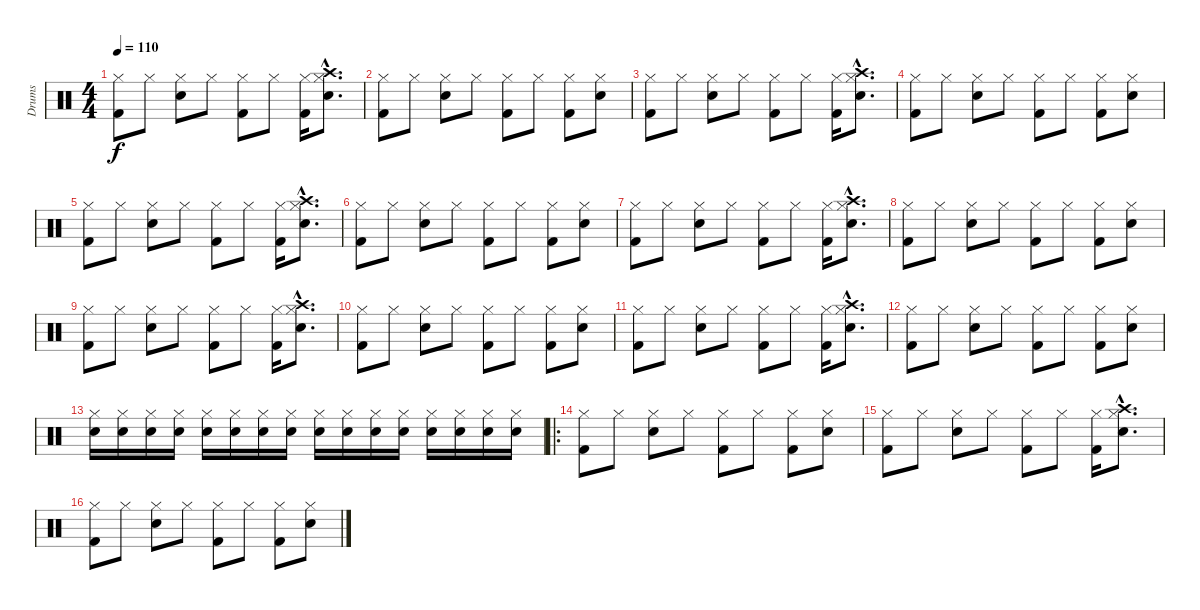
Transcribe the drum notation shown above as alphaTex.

\track ("Drums" "Drums") {instrument percussion}
\staff {score}
\articulation defaults
\ts (4 4)
\tempo 110
\clef neutral
\ks c
("Kick (hit) 2" "Hi-Hat (closed)").8{dy f} "Hi-Hat (closed)".8 ("Snare (hit) 2" "Hi-Hat (closed)").8 "Hi-Hat (closed)".8 ("Kick (hit) 2" "Hi-Hat (closed)").8 "Hi-Hat (closed)".8 ("Kick (hit) 2" "Hi-Hat (closed)").16 ("Snare (hit) 2"{hac} "Hi-Hat (closed)"{hac} "Crash high (hit)"{hac}).8{d} |
("Kick (hit) 2" "Hi-Hat (closed)").8 "Hi-Hat (closed)".8 ("Snare (hit) 2" "Hi-Hat (closed)").8 "Hi-Hat (closed)".8 ("Kick (hit) 2" "Hi-Hat (closed)").8 "Hi-Hat (closed)".8 ("Kick (hit) 2" "Hi-Hat (closed)").8 ("Snare (hit) 2" "Hi-Hat (closed)").8 |
("Kick (hit) 2" "Hi-Hat (closed)").8 "Hi-Hat (closed)".8 ("Snare (hit) 2" "Hi-Hat (closed)").8 "Hi-Hat (closed)".8 ("Kick (hit) 2" "Hi-Hat (closed)").8 "Hi-Hat (closed)".8 ("Kick (hit) 2" "Hi-Hat (closed)").16 ("Snare (hit) 2"{hac} "Hi-Hat (closed)"{hac} "Crash high (hit)"{hac}).8{d} |
("Kick (hit) 2" "Hi-Hat (closed)").8 "Hi-Hat (closed)".8 ("Snare (hit) 2" "Hi-Hat (closed)").8 "Hi-Hat (closed)".8 ("Kick (hit) 2" "Hi-Hat (closed)").8 "Hi-Hat (closed)".8 ("Kick (hit) 2" "Hi-Hat (closed)").8 ("Snare (hit) 2" "Hi-Hat (closed)").8 |
("Kick (hit) 2" "Hi-Hat (closed)").8 "Hi-Hat (closed)".8 ("Snare (hit) 2" "Hi-Hat (closed)").8 "Hi-Hat (closed)".8 ("Kick (hit) 2" "Hi-Hat (closed)").8 "Hi-Hat (closed)".8 ("Kick (hit) 2" "Hi-Hat (closed)").16 ("Snare (hit) 2"{hac} "Hi-Hat (closed)"{hac} "Crash high (hit)"{hac}).8{d} |
("Kick (hit) 2" "Hi-Hat (closed)").8 "Hi-Hat (closed)".8 ("Snare (hit) 2" "Hi-Hat (closed)").8 "Hi-Hat (closed)".8 ("Kick (hit) 2" "Hi-Hat (closed)").8 "Hi-Hat (closed)".8 ("Kick (hit) 2" "Hi-Hat (closed)").8 ("Snare (hit) 2" "Hi-Hat (closed)").8 |
("Kick (hit) 2" "Hi-Hat (closed)").8 "Hi-Hat (closed)".8 ("Snare (hit) 2" "Hi-Hat (closed)").8 "Hi-Hat (closed)".8 ("Kick (hit) 2" "Hi-Hat (closed)").8 "Hi-Hat (closed)".8 ("Kick (hit) 2" "Hi-Hat (closed)").16 ("Snare (hit) 2"{hac} "Hi-Hat (closed)"{hac} "Crash high (hit)"{hac}).8{d} |
("Kick (hit) 2" "Hi-Hat (closed)").8 "Hi-Hat (closed)".8 ("Snare (hit) 2" "Hi-Hat (closed)").8 "Hi-Hat (closed)".8 ("Kick (hit) 2" "Hi-Hat (closed)").8 "Hi-Hat (closed)".8 ("Kick (hit) 2" "Hi-Hat (closed)").8 ("Snare (hit) 2" "Hi-Hat (closed)").8 |
("Kick (hit) 2" "Hi-Hat (closed)").8 "Hi-Hat (closed)".8 ("Snare (hit) 2" "Hi-Hat (closed)").8 "Hi-Hat (closed)".8 ("Kick (hit) 2" "Hi-Hat (closed)").8 "Hi-Hat (closed)".8 ("Kick (hit) 2" "Hi-Hat (closed)").16 ("Snare (hit) 2"{hac} "Hi-Hat (closed)"{hac} "Crash high (hit)"{hac}).8{d} |
("Kick (hit) 2" "Hi-Hat (closed)").8 "Hi-Hat (closed)".8 ("Snare (hit) 2" "Hi-Hat (closed)").8 "Hi-Hat (closed)".8 ("Kick (hit) 2" "Hi-Hat (closed)").8 "Hi-Hat (closed)".8 ("Kick (hit) 2" "Hi-Hat (closed)").8 ("Snare (hit) 2" "Hi-Hat (closed)").8 |
("Kick (hit) 2" "Hi-Hat (closed)").8 "Hi-Hat (closed)".8 ("Snare (hit) 2" "Hi-Hat (closed)").8 "Hi-Hat (closed)".8 ("Kick (hit) 2" "Hi-Hat (closed)").8 "Hi-Hat (closed)".8 ("Kick (hit) 2" "Hi-Hat (closed)").16 ("Snare (hit) 2"{hac} "Hi-Hat (closed)"{hac} "Crash high (hit)"{hac}).8{d} |
("Kick (hit) 2" "Hi-Hat (closed)").8 "Hi-Hat (closed)".8 ("Snare (hit) 2" "Hi-Hat (closed)").8 "Hi-Hat (closed)".8 ("Kick (hit) 2" "Hi-Hat (closed)").8 "Hi-Hat (closed)".8 ("Kick (hit) 2" "Hi-Hat (closed)").8 ("Snare (hit) 2" "Hi-Hat (closed)").8 |
("Electric Snare (hit)" "Hi-Hat (closed)").16 ("Electric Snare (hit)" "Hi-Hat (closed)").16 ("Electric Snare (hit)" "Hi-Hat (closed)").16 ("Electric Snare (hit)" "Hi-Hat (closed)").16 ("Electric Snare (hit)" "Hi-Hat (closed)").16 ("Electric Snare (hit)" "Hi-Hat (closed)").16 ("Electric Snare (hit)" "Hi-Hat (closed)").16 ("Electric Snare (hit)" "Hi-Hat (closed)").16 ("Electric Snare (hit)" "Hi-Hat (closed)").16 ("Electric Snare (hit)" "Hi-Hat (closed)").16 ("Electric Snare (hit)" "Hi-Hat (closed)").16 ("Electric Snare (hit)" "Hi-Hat (closed)").16 ("Electric Snare (hit)" "Hi-Hat (closed)").16 ("Electric Snare (hit)" "Hi-Hat (closed)").16 ("Electric Snare (hit)" "Hi-Hat (closed)").16 ("Electric Snare (hit)" "Hi-Hat (closed)").16 |
\ro
("Kick (hit) 2" "Hi-Hat (closed)").8 "Hi-Hat (closed)".8 ("Snare (hit) 2" "Hi-Hat (closed)").8 "Hi-Hat (closed)".8 ("Kick (hit) 2" "Hi-Hat (closed)").8 "Hi-Hat (closed)".8 ("Kick (hit) 2" "Hi-Hat (closed)").8 ("Snare (hit) 2" "Hi-Hat (closed)").8 |
("Kick (hit) 2" "Hi-Hat (closed)").8 "Hi-Hat (closed)".8 ("Snare (hit) 2" "Hi-Hat (closed)").8 "Hi-Hat (closed)".8 ("Kick (hit) 2" "Hi-Hat (closed)").8 "Hi-Hat (closed)".8 ("Kick (hit) 2" "Hi-Hat (closed)").16 ("Snare (hit) 2"{hac} "Hi-Hat (closed)"{hac} "Crash high (hit)"{hac}).8{d} |
("Kick (hit) 2" "Hi-Hat (closed)").8 "Hi-Hat (closed)".8 ("Snare (hit) 2" "Hi-Hat (closed)").8 "Hi-Hat (closed)".8 ("Kick (hit) 2" "Hi-Hat (closed)").8 "Hi-Hat (closed)".8 ("Kick (hit) 2" "Hi-Hat (closed)").8 ("Snare (hit) 2" "Hi-Hat (closed)").8
